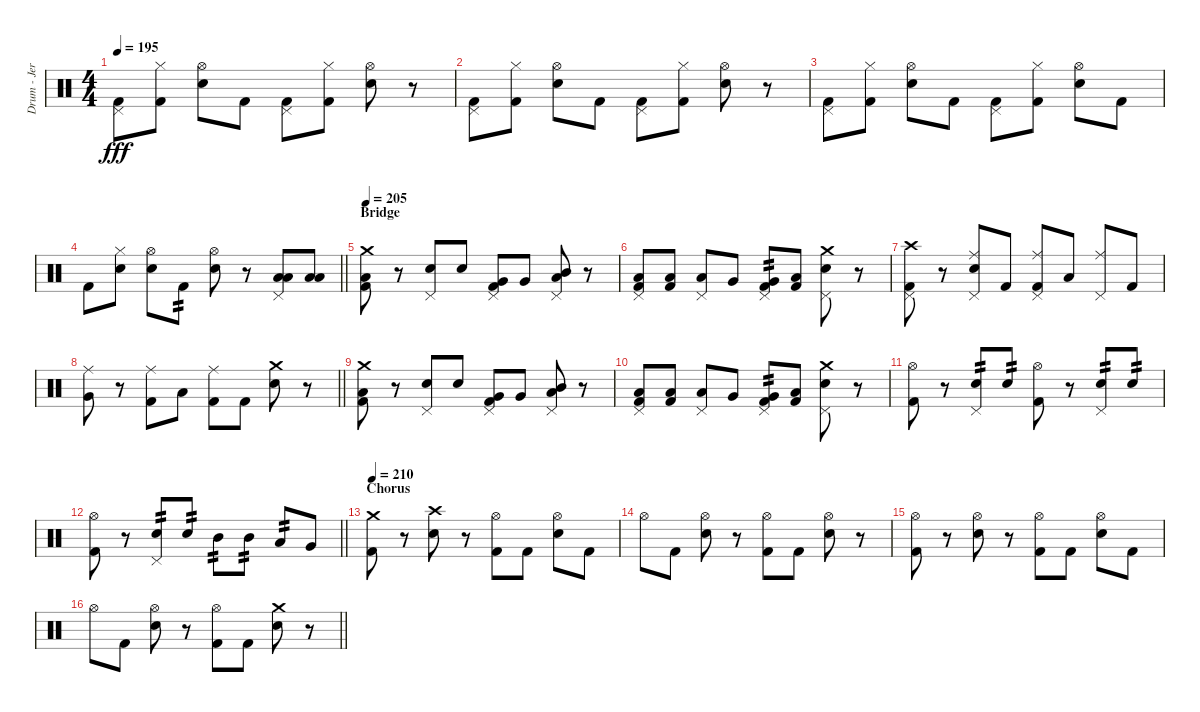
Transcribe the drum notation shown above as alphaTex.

\track ("Drum - Jerinx" "Drum - Jer") {instrument percussion}
\staff {score}
\articulation defaults
\ts (4 4)
\tempo 195
\clef neutral
\ks c
("Pedal Hi-Hat (hit)" "Kick (hit) 2").8{dy fff} ("Hi-Hat (closed)" "Kick (hit) 2").8 ("Hi-Hat (open)" "Snare (hit) 2").8 "Kick (hit) 2".8 ("Pedal Hi-Hat (hit)" "Kick (hit) 2").8 ("Hi-Hat (closed)" "Kick (hit) 2").8 ("Hi-Hat (open)" "Snare (hit) 2").8 r.8 |
("Pedal Hi-Hat (hit)" "Kick (hit) 2").8 ("Hi-Hat (closed)" "Kick (hit) 2").8 ("Hi-Hat (open)" "Snare (hit) 2").8 "Kick (hit) 2".8 ("Pedal Hi-Hat (hit)" "Kick (hit) 2").8 ("Hi-Hat (closed)" "Kick (hit) 2").8 ("Hi-Hat (open)" "Snare (hit) 2").8 r.8 |
("Pedal Hi-Hat (hit)" "Kick (hit) 2").8 ("Hi-Hat (closed)" "Kick (hit) 2").8 ("Hi-Hat (open)" "Snare (hit) 2").8 "Kick (hit) 2".8 ("Pedal Hi-Hat (hit)" "Kick (hit) 2").8 ("Hi-Hat (closed)" "Kick (hit) 2").8 ("Hi-Hat (open)" "Snare (hit) 2").8 "Kick (hit) 2".8 |
\barLineRight lightlight "Kick (hit) 2".8
("Hi-Hat (closed)" "Snare (hit) 2").8 ("Hi-Hat (open)" "Snare (hit) 2").8 "Kick (hit) 2".8{tp 2} ("Hi-Hat (open)" "Snare (hit) 2").8 r.8 ("Pedal Hi-Hat (hit)" "Low Tom (hit)" "Low Floor Tom (hit)").8 ("Low Tom (hit)" "Low Floor Tom (hit)").8 |
\section ("" "Bridge")
\tempo 205
("Kick (hit) 2" "Low Floor Tom (hit)" "Crash medium (hit)").8 r.8 ("Pedal Hi-Hat (hit)" "Snare (hit) 2").8 "Snare (hit) 2".8 ("Pedal Hi-Hat (hit)" "Kick (hit) 2" "Very Low Tom (hit)").8 "Very Low Tom (hit)".8 ("Pedal Hi-Hat (hit)" "Mid Tom (hit)" "Low Floor Tom (hit)").8 r.8 |
("Pedal Hi-Hat (hit)" "Kick (hit) 2" "Low Floor Tom (hit)").8 ("Kick (hit) 2" "Low Floor Tom (hit)").8 ("Pedal Hi-Hat (hit)" "Low Tom (hit)").8 "Very Low Tom (hit)".8 ("Pedal Hi-Hat (hit)" "Kick (hit) 2" "Very Low Tom (hit)").8{tp 2} ("Kick (hit) 2" "Low Floor Tom (hit)").8 ("Pedal Hi-Hat (hit)" "Snare (hit) 2" "Crash medium (hit)").8 r.8 |
("Pedal Hi-Hat (hit)" "Kick (hit) 2" "Crash high (hit)").8 r.8 ("Pedal Hi-Hat (hit)" "Snare (hit) 2" "Ride (middle)").8 "Kick (hit) 2".8 ("Pedal Hi-Hat (hit)" "Kick (hit) 2" "Ride (middle)").8 "Low Tom (hit)".8 ("Pedal Hi-Hat (hit)" "Ride (middle)").8 "Kick (hit) 2".8 |
\barLineRight lightlight
("Very Low Tom (hit)" "Ride (middle)").8 r.8 ("Kick (hit) 2" "Ride (middle)").8 "Low Floor Tom (hit)".8 ("Kick (hit) 2" "Ride (middle)").8 "Kick (hit) 2".8 ("Snare (hit) 2" "Crash medium (hit)").8 r.8 |
("Kick (hit) 2" "Low Floor Tom (hit)" "Crash medium (hit)").8 r.8 ("Pedal Hi-Hat (hit)" "Snare (hit) 2").8 "Snare (hit) 2".8 ("Pedal Hi-Hat (hit)" "Kick (hit) 2" "Very Low Tom (hit)").8 "Very Low Tom (hit)".8 ("Pedal Hi-Hat (hit)" "Mid Tom (hit)" "Low Floor Tom (hit)").8 r.8 |
("Pedal Hi-Hat (hit)" "Kick (hit) 2" "Low Floor Tom (hit)").8 ("Kick (hit) 2" "Low Floor Tom (hit)").8 ("Pedal Hi-Hat (hit)" "Low Tom (hit)").8 "Very Low Tom (hit)".8 ("Pedal Hi-Hat (hit)" "Kick (hit) 2" "Very Low Tom (hit)").8{tp 2} ("Kick (hit) 2" "Low Floor Tom (hit)").8 ("Pedal Hi-Hat (hit)" "Snare (hit) 2" "Crash medium (hit)").8 r.8 |
("Hi-Hat (open)" "Kick (hit) 2").8 r.8 ("Pedal Hi-Hat (hit)" "Snare (hit) 2").8{tp 2} "Snare (hit) 2".8{tp 2} ("Hi-Hat (open)" "Kick (hit) 2").8 r.8 ("Pedal Hi-Hat (hit)" "Snare (hit) 2").8{tp 2} "Snare (hit) 2".8{tp 2} |
\barLineRight lightlight
("Hi-Hat (open)" "Kick (hit) 2").8 r.8 ("Pedal Hi-Hat (hit)" "Snare (hit) 2").8{tp 2} "Snare (hit) 2".8{tp 2} "Mid Tom (hit)".8{tp 2} "Mid Tom (hit)".8{tp 2} "Low Tom (hit)".8{tp 2} "Very Low Tom (hit)".8 |
\section ("" "Chorus")
\tempo 210
("Kick (hit) 2" "Crash medium (hit)").8 r.8 ("Snare (hit) 2" "Crash high (hit)").8 r.8 ("Hi-Hat (open)" "Kick (hit) 2").8 "Kick (hit) 2".8 ("Hi-Hat (open)" "Snare (hit) 2").8 "Kick (hit) 2".8 |
"Hi-Hat (open)".8 "Kick (hit) 2".8 ("Hi-Hat (open)" "Snare (hit) 2").8 r.8 ("Hi-Hat (open)" "Kick (hit) 2").8 "Kick (hit) 2".8 ("Hi-Hat (open)" "Snare (hit) 2").8 r.8 |
("Hi-Hat (open)" "Kick (hit) 2").8 r.8 ("Hi-Hat (open)" "Snare (hit) 2").8 r.8 ("Hi-Hat (open)" "Kick (hit) 2").8 "Kick (hit) 2".8 ("Hi-Hat (open)" "Snare (hit) 2").8 "Kick (hit) 2".8 |
\barLineRight lightlight "Hi-Hat (open)".8 "Kick (hit) 2".8
("Hi-Hat (open)" "Snare (hit) 2").8 r.8 ("Hi-Hat (open)" "Kick (hit) 2").8 "Kick (hit) 2".8 ("Snare (hit) 2" "Crash medium (hit)").8 r.8
